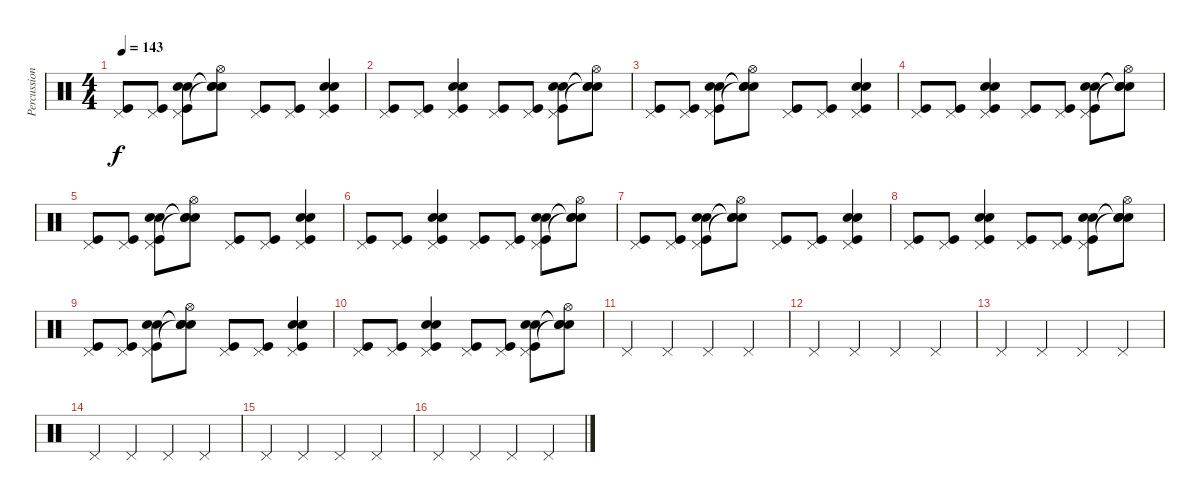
\track ("Percussions" "Percussion") {instrument percussion}
\staff {score}
\articulation defaults
\ts (4 4)
\tempo 143
\clef neutral
\ks c
("Pedal Hi-Hat (hit)" "Kick (hit)").8{dy f} ("Pedal Hi-Hat (hit)" "Kick (hit)").8 ("Pedal Hi-Hat (hit)" "Snare (hit) 2" "Snare (hit) 2" "Kick (hit)").8 ("Hi-Hat (open)" "Snare (hit)"{t} "Snare (hit)"{t} "Snare (hit)"{t}).8 ("Pedal Hi-Hat (hit)" "Kick (hit)").8 ("Pedal Hi-Hat (hit)" "Kick (hit)").8 ("Pedal Hi-Hat (hit)" "Snare (hit) 2" "Snare (hit) 2" "Kick (hit)").4 |
("Pedal Hi-Hat (hit)" "Kick (hit)").8 ("Pedal Hi-Hat (hit)" "Kick (hit)").8 ("Pedal Hi-Hat (hit)" "Snare (hit) 2" "Snare (hit) 2" "Kick (hit)").4 ("Pedal Hi-Hat (hit)" "Kick (hit)").8 ("Pedal Hi-Hat (hit)" "Kick (hit)").8 ("Pedal Hi-Hat (hit)" "Snare (hit) 2" "Snare (hit) 2" "Kick (hit)").8 ("Hi-Hat (open)" "Snare (hit)"{t} "Snare (hit)"{t} "Snare (hit)"{t}).8 |
("Pedal Hi-Hat (hit)" "Kick (hit)").8 ("Pedal Hi-Hat (hit)" "Kick (hit)").8 ("Pedal Hi-Hat (hit)" "Snare (hit) 2" "Snare (hit) 2" "Kick (hit)").8 ("Hi-Hat (open)" "Snare (hit)"{t} "Snare (hit)"{t} "Snare (hit)"{t}).8 ("Pedal Hi-Hat (hit)" "Kick (hit)").8 ("Pedal Hi-Hat (hit)" "Kick (hit)").8 ("Pedal Hi-Hat (hit)" "Snare (hit) 2" "Snare (hit) 2" "Kick (hit)").4 |
("Pedal Hi-Hat (hit)" "Kick (hit)").8 ("Pedal Hi-Hat (hit)" "Kick (hit)").8 ("Pedal Hi-Hat (hit)" "Snare (hit) 2" "Snare (hit) 2" "Kick (hit)").4 ("Pedal Hi-Hat (hit)" "Kick (hit)").8 ("Pedal Hi-Hat (hit)" "Kick (hit)").8 ("Pedal Hi-Hat (hit)" "Snare (hit) 2" "Snare (hit) 2" "Kick (hit)").8 ("Hi-Hat (open)" "Snare (hit)"{t} "Snare (hit)"{t} "Snare (hit)"{t}).8 |
("Pedal Hi-Hat (hit)" "Kick (hit)").8 ("Pedal Hi-Hat (hit)" "Kick (hit)").8 ("Pedal Hi-Hat (hit)" "Snare (hit) 2" "Snare (hit) 2" "Kick (hit)").8 ("Hi-Hat (open)" "Snare (hit)"{t} "Snare (hit)"{t} "Snare (hit)"{t}).8 ("Pedal Hi-Hat (hit)" "Kick (hit)").8 ("Pedal Hi-Hat (hit)" "Kick (hit)").8 ("Pedal Hi-Hat (hit)" "Snare (hit) 2" "Snare (hit) 2" "Kick (hit)").4 |
("Pedal Hi-Hat (hit)" "Kick (hit)").8 ("Pedal Hi-Hat (hit)" "Kick (hit)").8 ("Pedal Hi-Hat (hit)" "Snare (hit) 2" "Snare (hit) 2" "Kick (hit)").4 ("Pedal Hi-Hat (hit)" "Kick (hit)").8 ("Pedal Hi-Hat (hit)" "Kick (hit)").8 ("Pedal Hi-Hat (hit)" "Snare (hit) 2" "Snare (hit) 2" "Kick (hit)").8 ("Hi-Hat (open)" "Snare (hit)"{t} "Snare (hit)"{t} "Snare (hit)"{t}).8 |
("Pedal Hi-Hat (hit)" "Kick (hit)").8 ("Pedal Hi-Hat (hit)" "Kick (hit)").8 ("Pedal Hi-Hat (hit)" "Snare (hit) 2" "Snare (hit) 2" "Kick (hit)").8 ("Hi-Hat (open)" "Snare (hit)"{t} "Snare (hit)"{t} "Snare (hit)"{t}).8 ("Pedal Hi-Hat (hit)" "Kick (hit)").8 ("Pedal Hi-Hat (hit)" "Kick (hit)").8 ("Pedal Hi-Hat (hit)" "Snare (hit) 2" "Snare (hit) 2" "Kick (hit)").4 |
("Pedal Hi-Hat (hit)" "Kick (hit)").8 ("Pedal Hi-Hat (hit)" "Kick (hit)").8 ("Pedal Hi-Hat (hit)" "Snare (hit) 2" "Snare (hit) 2" "Kick (hit)").4 ("Pedal Hi-Hat (hit)" "Kick (hit)").8 ("Pedal Hi-Hat (hit)" "Kick (hit)").8 ("Pedal Hi-Hat (hit)" "Snare (hit) 2" "Snare (hit) 2" "Kick (hit)").8 ("Hi-Hat (open)" "Snare (hit)"{t} "Snare (hit)"{t} "Snare (hit)"{t}).8 |
("Pedal Hi-Hat (hit)" "Kick (hit)").8 ("Pedal Hi-Hat (hit)" "Kick (hit)").8 ("Pedal Hi-Hat (hit)" "Snare (hit) 2" "Snare (hit) 2" "Kick (hit)").8 ("Hi-Hat (open)" "Snare (hit)"{t} "Snare (hit)"{t} "Snare (hit)"{t}).8 ("Pedal Hi-Hat (hit)" "Kick (hit)").8 ("Pedal Hi-Hat (hit)" "Kick (hit)").8 ("Pedal Hi-Hat (hit)" "Snare (hit) 2" "Snare (hit) 2" "Kick (hit)").4 |
("Pedal Hi-Hat (hit)" "Kick (hit)").8 ("Pedal Hi-Hat (hit)" "Kick (hit)").8 ("Pedal Hi-Hat (hit)" "Snare (hit) 2" "Snare (hit) 2" "Kick (hit)").4 ("Pedal Hi-Hat (hit)" "Kick (hit)").8 ("Pedal Hi-Hat (hit)" "Kick (hit)").8 ("Pedal Hi-Hat (hit)" "Snare (hit) 2" "Snare (hit) 2" "Kick (hit)").8 ("Hi-Hat (open)" "Snare (hit)"{t} "Snare (hit)"{t} "Snare (hit)"{t}).8 |
"Pedal Hi-Hat (hit)".4 "Pedal Hi-Hat (hit)".4 "Pedal Hi-Hat (hit)".4 "Pedal Hi-Hat (hit)".4 |
"Pedal Hi-Hat (hit)".4 "Pedal Hi-Hat (hit)".4 "Pedal Hi-Hat (hit)".4 "Pedal Hi-Hat (hit)".4 |
"Pedal Hi-Hat (hit)".4 "Pedal Hi-Hat (hit)".4 "Pedal Hi-Hat (hit)".4 "Pedal Hi-Hat (hit)".4 |
"Pedal Hi-Hat (hit)".4 "Pedal Hi-Hat (hit)".4 "Pedal Hi-Hat (hit)".4 "Pedal Hi-Hat (hit)".4 |
"Pedal Hi-Hat (hit)".4 "Pedal Hi-Hat (hit)".4 "Pedal Hi-Hat (hit)".4 "Pedal Hi-Hat (hit)".4 |
"Pedal Hi-Hat (hit)".4 "Pedal Hi-Hat (hit)".4 "Pedal Hi-Hat (hit)".4 "Pedal Hi-Hat (hit)".4
